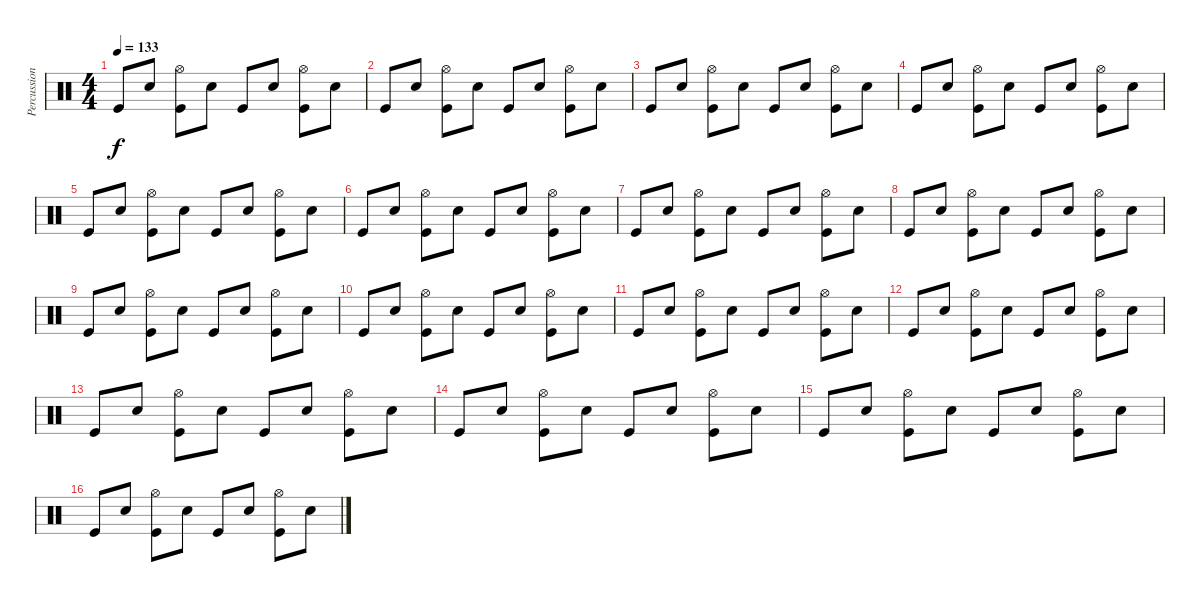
\track ("Percussion" "Percussion") {instrument percussion}
\staff {score}
\articulation defaults
\ts (4 4)
\tempo 133
\clef neutral
\ks c "Kick (hit)".8{dy f} "Snare (hit) 2".8
("Hi-Hat (open)" "Kick (hit)").8 "Snare (hit)"{x}.8 "Kick (hit)".8 "Snare (hit) 2".8 ("Hi-Hat (open)" "Kick (hit)").8 "Snare (hit)"{x}.8 |
"Kick (hit)".8 "Snare (hit) 2".8 ("Hi-Hat (open)" "Kick (hit)").8 "Snare (hit)"{x}.8 "Kick (hit)".8 "Snare (hit) 2".8 ("Hi-Hat (open)" "Kick (hit)").8 "Snare (hit)"{x}.8 |
"Kick (hit)".8 "Snare (hit) 2".8 ("Hi-Hat (open)" "Kick (hit)").8 "Snare (hit)"{x}.8 "Kick (hit)".8 "Snare (hit) 2".8 ("Hi-Hat (open)" "Kick (hit)").8 "Snare (hit)"{x}.8 |
"Kick (hit)".8 "Snare (hit) 2".8 ("Hi-Hat (open)" "Kick (hit)").8 "Snare (hit)"{x}.8 "Kick (hit)".8 "Snare (hit) 2".8 ("Hi-Hat (open)" "Kick (hit)").8 "Snare (hit)"{x}.8 |
"Kick (hit)".8 "Snare (hit) 2".8 ("Hi-Hat (open)" "Kick (hit)").8 "Snare (hit)"{x}.8 "Kick (hit)".8 "Snare (hit) 2".8 ("Hi-Hat (open)" "Kick (hit)").8 "Snare (hit)"{x}.8 |
"Kick (hit)".8 "Snare (hit) 2".8 ("Hi-Hat (open)" "Kick (hit)").8 "Snare (hit)"{x}.8 "Kick (hit)".8 "Snare (hit) 2".8 ("Hi-Hat (open)" "Kick (hit)").8 "Snare (hit)"{x}.8 |
"Kick (hit)".8 "Snare (hit) 2".8 ("Hi-Hat (open)" "Kick (hit)").8 "Snare (hit)"{x}.8 "Kick (hit)".8 "Snare (hit) 2".8 ("Hi-Hat (open)" "Kick (hit)").8 "Snare (hit)"{x}.8 |
"Kick (hit)".8 "Snare (hit) 2".8 ("Hi-Hat (open)" "Kick (hit)").8 "Snare (hit)"{x}.8 "Kick (hit)".8 "Snare (hit) 2".8 ("Hi-Hat (open)" "Kick (hit)").8 "Snare (hit)"{x}.8 |
"Kick (hit)".8 "Snare (hit) 2".8 ("Hi-Hat (open)" "Kick (hit)").8 "Snare (hit)"{x}.8 "Kick (hit)".8 "Snare (hit) 2".8 ("Hi-Hat (open)" "Kick (hit)").8 "Snare (hit)"{x}.8 |
"Kick (hit)".8 "Snare (hit) 2".8 ("Hi-Hat (open)" "Kick (hit)").8 "Snare (hit)"{x}.8 "Kick (hit)".8 "Snare (hit) 2".8 ("Hi-Hat (open)" "Kick (hit)").8 "Snare (hit)"{x}.8 |
"Kick (hit)".8 "Snare (hit) 2".8 ("Hi-Hat (open)" "Kick (hit)").8 "Snare (hit)"{x}.8 "Kick (hit)".8 "Snare (hit) 2".8 ("Hi-Hat (open)" "Kick (hit)").8 "Snare (hit)"{x}.8 |
"Kick (hit)".8 "Snare (hit) 2".8 ("Hi-Hat (open)" "Kick (hit)").8 "Snare (hit)"{x}.8 "Kick (hit)".8 "Snare (hit) 2".8 ("Hi-Hat (open)" "Kick (hit)").8 "Snare (hit)"{x}.8 |
"Kick (hit)".8 "Snare (hit) 2".8 ("Hi-Hat (open)" "Kick (hit)").8 "Snare (hit)"{x}.8 "Kick (hit)".8 "Snare (hit) 2".8 ("Hi-Hat (open)" "Kick (hit)").8 "Snare (hit)"{x}.8 |
"Kick (hit)".8 "Snare (hit) 2".8 ("Hi-Hat (open)" "Kick (hit)").8 "Snare (hit)"{x}.8 "Kick (hit)".8 "Snare (hit) 2".8 ("Hi-Hat (open)" "Kick (hit)").8 "Snare (hit)"{x}.8 |
"Kick (hit)".8 "Snare (hit) 2".8 ("Hi-Hat (open)" "Kick (hit)").8 "Snare (hit)"{x}.8 "Kick (hit)".8 "Snare (hit) 2".8 ("Hi-Hat (open)" "Kick (hit)").8 "Snare (hit)"{x}.8 |
"Kick (hit)".8 "Snare (hit) 2".8 ("Hi-Hat (open)" "Kick (hit)").8 "Snare (hit)"{x}.8 "Kick (hit)".8 "Snare (hit) 2".8 ("Hi-Hat (open)" "Kick (hit)").8 "Snare (hit)"{x}.8
